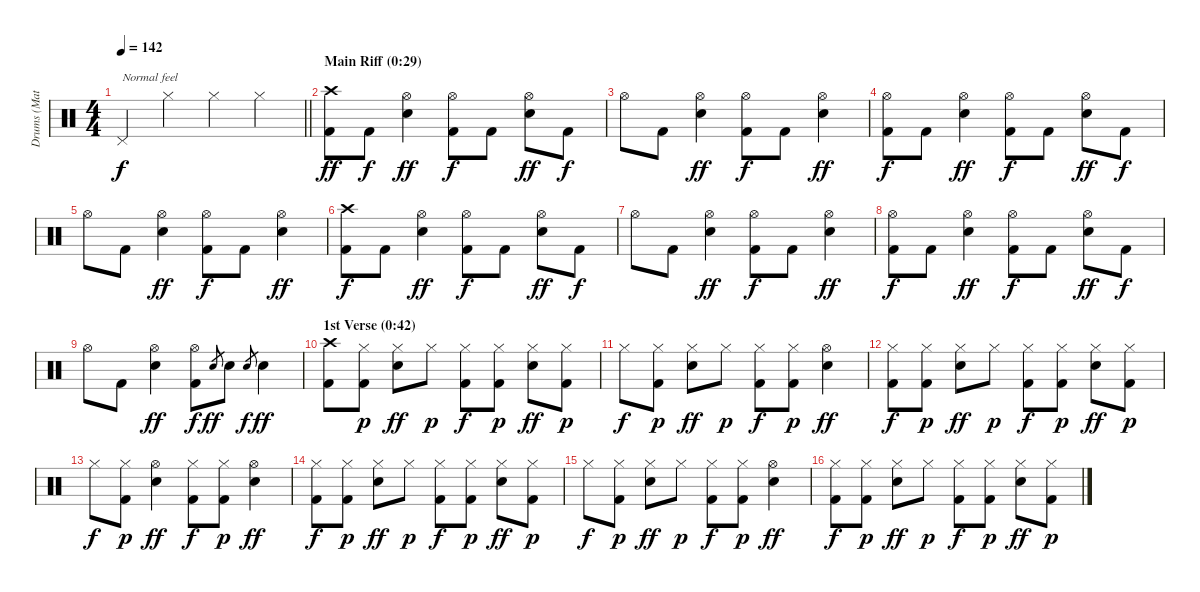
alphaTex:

\track ("Drums (Matt Sorum)" "Drums (Mat") {instrument percussion}
\staff {score}
\articulation defaults
\ts (4 4)
\tempo 142
\clef neutral
\barLineRight lightlight
\ks c "Pedal Hi-Hat (hit)".4{txt "Normal feel" dy f} "Hi-Hat (closed)".4 "Hi-Hat (closed)".4 "Hi-Hat (closed)".4
|
\section ("" "Main Riff (0:29)")
("Crash high (hit)" "Kick (hit) 2").8{dy ff} "Kick (hit) 2".8{dy f} ("Hi-Hat (open)" "Snare (hit) 2").4{dy ff} ("Hi-Hat (open)" "Kick (hit) 2").8{dy f} "Kick (hit) 2".8 ("Hi-Hat (open)" "Snare (hit) 2").8{dy ff} "Kick (hit) 2".8{dy f} |
"Hi-Hat (open)".8 "Kick (hit) 2".8 ("Hi-Hat (open)" "Snare (hit) 2").4{dy ff} ("Hi-Hat (open)" "Kick (hit) 2").8{dy f} "Kick (hit) 2".8 ("Hi-Hat (open)" "Snare (hit) 2").4{dy ff} |
("Hi-Hat (open)" "Kick (hit) 2").8{dy f} "Kick (hit) 2".8 ("Hi-Hat (open)" "Snare (hit) 2").4{dy ff} ("Hi-Hat (open)" "Kick (hit) 2").8{dy f} "Kick (hit) 2".8 ("Hi-Hat (open)" "Snare (hit) 2").8{dy ff} "Kick (hit) 2".8{dy f} |
"Hi-Hat (open)".8 "Kick (hit) 2".8 ("Hi-Hat (open)" "Snare (hit) 2").4{dy ff} ("Hi-Hat (open)" "Kick (hit) 2").8{dy f} "Kick (hit) 2".8 ("Hi-Hat (open)" "Snare (hit) 2").4{dy ff} |
("Crash high (hit)" "Kick (hit) 2").8{dy f} "Kick (hit) 2".8 ("Hi-Hat (open)" "Snare (hit) 2").4{dy ff} ("Hi-Hat (open)" "Kick (hit) 2").8{dy f} "Kick (hit) 2".8 ("Hi-Hat (open)" "Snare (hit) 2").8{dy ff} "Kick (hit) 2".8{dy f} |
"Hi-Hat (open)".8 "Kick (hit) 2".8 ("Hi-Hat (open)" "Snare (hit) 2").4{dy ff} ("Hi-Hat (open)" "Kick (hit) 2").8{dy f} "Kick (hit) 2".8 ("Hi-Hat (open)" "Snare (hit) 2").4{dy ff} |
("Hi-Hat (open)" "Kick (hit) 2").8{dy f} "Kick (hit) 2".8 ("Hi-Hat (open)" "Snare (hit) 2").4{dy ff} ("Hi-Hat (open)" "Kick (hit) 2").8{dy f} "Kick (hit) 2".8 ("Hi-Hat (open)" "Snare (hit) 2").8{dy ff} "Kick (hit) 2".8{dy f} |
"Hi-Hat (open)".8 "Kick (hit) 2".8 ("Hi-Hat (open)" "Snare (hit) 2").4{dy ff} ("Hi-Hat (open)" "Kick (hit) 2").8{dy f} "Snare (hit) 2".8{gr dy ff} "Snare (hit) 2".8 "Snare (hit) 2".8{gr dy f} "Snare (hit) 2".4{dy ff} |
\section ("" "1st Verse (0:42)")
("Crash high (hit)" "Kick (hit) 2").8 ("Hi-Hat (closed)" "Kick (hit) 2").8{dy p} ("Hi-Hat (closed)" "Snare (hit) 2").8{dy ff} "Hi-Hat (closed)".8{dy p} ("Hi-Hat (closed)" "Kick (hit) 2").8{dy f} ("Hi-Hat (closed)" "Kick (hit) 2").8{dy p} ("Hi-Hat (closed)" "Snare (hit) 2").8{dy ff} ("Hi-Hat (closed)" "Kick (hit) 2").8{dy p} |
"Hi-Hat (closed)".8{dy f} ("Hi-Hat (closed)" "Kick (hit) 2").8{dy p} ("Hi-Hat (closed)" "Snare (hit) 2").8{dy ff} "Hi-Hat (closed)".8{dy p} ("Hi-Hat (closed)" "Kick (hit) 2").8{dy f} ("Hi-Hat (closed)" "Kick (hit) 2").8{dy p} ("Hi-Hat (open)" "Snare (hit) 2").4{dy ff} |
("Hi-Hat (closed)" "Kick (hit) 2").8{dy f} ("Hi-Hat (closed)" "Kick (hit) 2").8{dy p} ("Hi-Hat (closed)" "Snare (hit) 2").8{dy ff} "Hi-Hat (closed)".8{dy p} ("Hi-Hat (closed)" "Kick (hit) 2").8{dy f} ("Hi-Hat (closed)" "Kick (hit) 2").8{dy p} ("Hi-Hat (closed)" "Snare (hit) 2").8{dy ff} ("Hi-Hat (closed)" "Kick (hit) 2").8{dy p} |
"Hi-Hat (closed)".8{dy f} ("Hi-Hat (closed)" "Kick (hit) 2").8{dy p} ("Hi-Hat (open)" "Snare (hit) 2").4{dy ff} ("Hi-Hat (closed)" "Kick (hit) 2").8{dy f} ("Hi-Hat (closed)" "Kick (hit) 2").8{dy p} ("Hi-Hat (open)" "Snare (hit) 2").4{dy ff} |
("Hi-Hat (closed)" "Kick (hit) 2").8{dy f} ("Hi-Hat (closed)" "Kick (hit) 2").8{dy p} ("Hi-Hat (closed)" "Snare (hit) 2").8{dy ff} "Hi-Hat (closed)".8{dy p} ("Hi-Hat (closed)" "Kick (hit) 2").8{dy f} ("Hi-Hat (closed)" "Kick (hit) 2").8{dy p} ("Hi-Hat (closed)" "Snare (hit) 2").8{dy ff} ("Hi-Hat (closed)" "Kick (hit) 2").8{dy p} |
"Hi-Hat (closed)".8{dy f} ("Hi-Hat (closed)" "Kick (hit) 2").8{dy p} ("Hi-Hat (closed)" "Snare (hit) 2").8{dy ff} "Hi-Hat (closed)".8{dy p} ("Hi-Hat (closed)" "Kick (hit) 2").8{dy f} ("Hi-Hat (closed)" "Kick (hit) 2").8{dy p} ("Hi-Hat (open)" "Snare (hit) 2").4{dy ff} |
("Hi-Hat (closed)" "Kick (hit) 2").8{dy f} ("Hi-Hat (closed)" "Kick (hit) 2").8{dy p} ("Hi-Hat (closed)" "Snare (hit) 2").8{dy ff} "Hi-Hat (closed)".8{dy p} ("Hi-Hat (closed)" "Kick (hit) 2").8{dy f} ("Hi-Hat (closed)" "Kick (hit) 2").8{dy p} ("Hi-Hat (closed)" "Snare (hit) 2").8{dy ff} ("Hi-Hat (closed)" "Kick (hit) 2").8{dy p}
